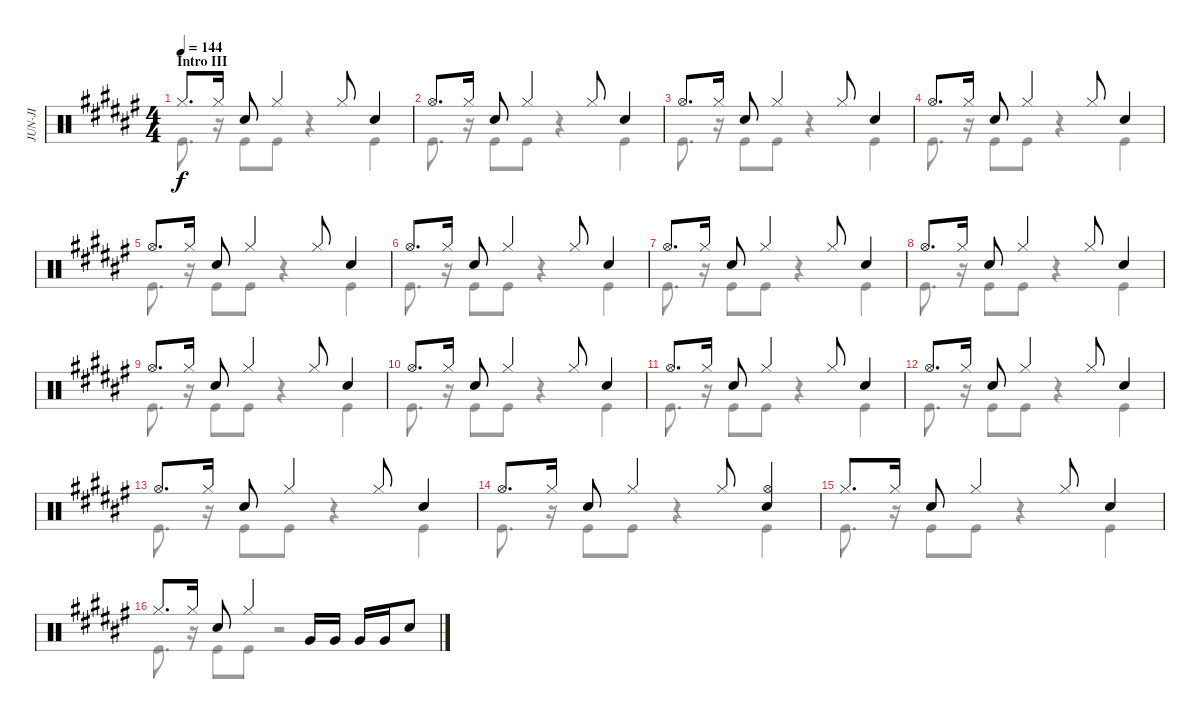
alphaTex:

\track ("JUN-JI" "JUN-JI") {instrument percussion}
\staff {score}
\articulation defaults
\voice
\ts (4 4)
\section ("" "Intro III")
\tempo 144
\clef neutral
\ks d#minor "Hi-Hat (closed)".8{d dy f} "Hi-Hat (closed)".16 "Snare (hit) 2".8 "Hi-Hat (closed)".4 "Hi-Hat (closed)".8 "Snare (hit) 2".4
|
"Hi-Hat (open)".8{d} "Hi-Hat (closed)".16 "Snare (hit) 2".8 "Hi-Hat (closed)".4 "Hi-Hat (closed)".8 "Snare (hit) 2".4 |
"Hi-Hat (open)".8{d} "Hi-Hat (closed)".16 "Snare (hit) 2".8 "Hi-Hat (closed)".4 "Hi-Hat (closed)".8 "Snare (hit) 2".4 |
"Hi-Hat (open)".8{d} "Hi-Hat (closed)".16 "Snare (hit) 2".8 "Hi-Hat (closed)".4 "Hi-Hat (closed)".8 "Snare (hit) 2".4 |
"Hi-Hat (open)".8{d} "Hi-Hat (closed)".16 "Snare (hit) 2".8 "Hi-Hat (closed)".4 "Hi-Hat (closed)".8 "Snare (hit) 2".4 |
"Hi-Hat (open)".8{d} "Hi-Hat (closed)".16 "Snare (hit) 2".8 "Hi-Hat (closed)".4 "Hi-Hat (closed)".8 "Snare (hit) 2".4 |
"Hi-Hat (open)".8{d} "Hi-Hat (closed)".16 "Snare (hit) 2".8 "Hi-Hat (closed)".4 "Hi-Hat (closed)".8 "Snare (hit) 2".4 |
"Hi-Hat (open)".8{d} "Hi-Hat (closed)".16 "Snare (hit) 2".8 "Hi-Hat (closed)".4 "Hi-Hat (closed)".8 "Snare (hit) 2".4 |
"Hi-Hat (open)".8{d} "Hi-Hat (closed)".16 "Snare (hit) 2".8 "Hi-Hat (closed)".4 "Hi-Hat (closed)".8 "Snare (hit) 2".4 |
"Hi-Hat (open)".8{d} "Hi-Hat (closed)".16 "Snare (hit) 2".8 "Hi-Hat (closed)".4 "Hi-Hat (closed)".8 "Snare (hit) 2".4 |
"Hi-Hat (open)".8{d} "Hi-Hat (closed)".16 "Snare (hit) 2".8 "Hi-Hat (closed)".4 "Hi-Hat (closed)".8 "Snare (hit) 2".4 |
"Hi-Hat (open)".8{d} "Hi-Hat (closed)".16 "Snare (hit) 2".8 "Hi-Hat (closed)".4 "Hi-Hat (closed)".8 "Snare (hit) 2".4 |
"Hi-Hat (open)".8{d} "Hi-Hat (closed)".16 "Snare (hit) 2".8 "Hi-Hat (closed)".4 "Hi-Hat (closed)".8 "Snare (hit) 2".4 |
"Hi-Hat (open)".8{d} "Hi-Hat (closed)".16 "Snare (hit) 2".8 "Hi-Hat (closed)".4 "Hi-Hat (closed)".8 ("Hi-Hat (open)" "Snare (hit) 2").4 |
"Hi-Hat (closed)".8{d} "Hi-Hat (closed)".16 "Snare (hit) 2".8 "Hi-Hat (closed)".4 "Hi-Hat (closed)".8 "Snare (hit) 2".4 |
"Hi-Hat (closed)".8{d} "Hi-Hat (closed)".16 "Snare (hit) 2".8 "Hi-Hat (closed)".4 "Very Low Tom (hit)".16 "Very Low Tom (hit)".16 "Very Low Tom (hit)".16 "Very Low Tom (hit)".16 "Snare (hit) 2".8
\voice
\clef neutral
\ottava regular
\simile none
\ks d#minor "Kick (hit)".8{d dy f}
r.16 "Kick (hit)".8 "Kick (hit)".8 r.4 "Kick (hit)".4 |
"Kick (hit)".8{d} r.16 "Kick (hit)".8 "Kick (hit)".8 r.4 "Kick (hit)".4 |
"Kick (hit)".8{d} r.16 "Kick (hit)".8 "Kick (hit)".8 r.4 "Kick (hit)".4 |
"Kick (hit)".8{d} r.16 "Kick (hit)".8 "Kick (hit)".8 r.4 "Kick (hit)".4 |
"Kick (hit)".8{d} r.16 "Kick (hit)".8 "Kick (hit)".8 r.4 "Kick (hit)".4 |
"Kick (hit)".8{d} r.16 "Kick (hit)".8 "Kick (hit)".8 r.4 "Kick (hit)".4 |
"Kick (hit)".8{d} r.16 "Kick (hit)".8 "Kick (hit)".8 r.4 "Kick (hit)".4 |
"Kick (hit)".8{d} r.16 "Kick (hit)".8 "Kick (hit)".8 r.4 "Kick (hit)".4 |
"Kick (hit)".8{d} r.16 "Kick (hit)".8 "Kick (hit)".8 r.4 "Kick (hit)".4 |
"Kick (hit)".8{d} r.16 "Kick (hit)".8 "Kick (hit)".8 r.4 "Kick (hit)".4 |
"Kick (hit)".8{d} r.16 "Kick (hit)".8 "Kick (hit)".8 r.4 "Kick (hit)".4 |
"Kick (hit)".8{d} r.16 "Kick (hit)".8 "Kick (hit)".8 r.4 "Kick (hit)".4 |
"Kick (hit)".8{d} r.16 "Kick (hit)".8 "Kick (hit)".8 r.4 "Kick (hit)".4 |
"Kick (hit)".8{d} r.16 "Kick (hit)".8 "Kick (hit)".8 r.4 "Kick (hit)".4 |
"Kick (hit)".8{d} r.16 "Kick (hit)".8 "Kick (hit)".8 r.4 "Kick (hit)".4 |
"Kick (hit)".8{d} r.16 "Kick (hit)".8 "Kick (hit)".8 r.2
